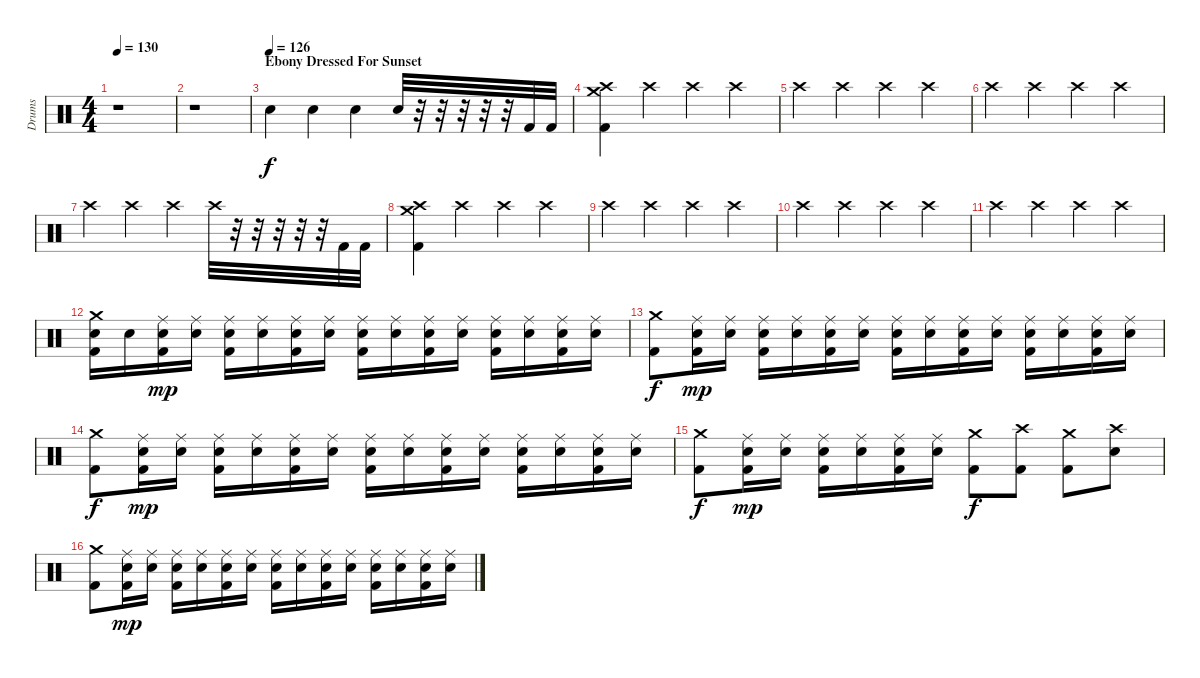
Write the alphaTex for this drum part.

\track ("Drums" "Drums") {instrument percussion}
\staff {score}
\articulation defaults
\ts (4 4)
\tempo 130
\clef neutral
\ks c
r.1{dy f} |
r.1 |
\section ("" "Ebony Dressed For Sunset")
\tempo (126)
"Electric Snare (hit)".4 "Electric Snare (hit)".4 "Electric Snare (hit)".4 "Electric Snare (hit)".32 r.32 r.32 r.32 r.32 r.32 "Kick (hit) 2".32 "Kick (hit) 2".32 |
("Kick (hit) 2" "Crash high (hit)" "Crash medium (hit)").4 "Crash high (hit)".4 "Crash high (hit)".4 "Crash high (hit)".4 |
"Crash high (hit)".4 "Crash high (hit)".4 "Crash high (hit)".4 "Crash high (hit)".4 |
"Crash high (hit)".4 "Crash high (hit)".4 "Crash high (hit)".4 "Crash high (hit)".4 |
"Crash high (hit)".4 "Crash high (hit)".4 "Crash high (hit)".4 "Crash high (hit)".32 r.32 r.32 r.32 r.32 r.32 "Kick (hit) 2".32 "Kick (hit) 2".32 |
("Kick (hit) 2" "Crash high (hit)" "Crash medium (hit)").4 "Crash high (hit)".4 "Crash high (hit)".4 "Crash high (hit)".4 |
"Crash high (hit)".4 "Crash high (hit)".4 "Crash high (hit)".4 "Crash high (hit)".4 |
"Crash high (hit)".4 "Crash high (hit)".4 "Crash high (hit)".4 "Crash high (hit)".4 |
"Crash high (hit)".4 "Crash high (hit)".4 "Crash high (hit)".4 "Crash high (hit)".4 |
("Kick (hit) 2" "Electric Snare (hit)" "Crash medium (hit)").16 "Electric Snare (hit)".16 ("Kick (hit) 2" "Electric Snare (hit)" "Ride (middle)").16{dy mp} ("Electric Snare (hit)" "Ride (middle)").16 ("Kick (hit) 2" "Electric Snare (hit)" "Ride (middle)").16 ("Electric Snare (hit)" "Ride (middle)").16 ("Kick (hit) 2" "Electric Snare (hit)" "Ride (middle)").16 ("Electric Snare (hit)" "Ride (middle)").16 ("Kick (hit) 2" "Electric Snare (hit)" "Ride (middle)").16 ("Electric Snare (hit)" "Ride (middle)").16 ("Kick (hit) 2" "Electric Snare (hit)" "Ride (middle)").16 ("Electric Snare (hit)" "Ride (middle)").16 ("Kick (hit) 2" "Electric Snare (hit)" "Ride (middle)").16 ("Electric Snare (hit)" "Ride (middle)").16 ("Kick (hit) 2" "Electric Snare (hit)" "Ride (middle)").16 ("Electric Snare (hit)" "Ride (middle)").16 |
("Kick (hit) 2" "Crash medium (hit)").8{dy f} ("Kick (hit) 2" "Electric Snare (hit)" "Ride (middle)").16{dy mp} ("Electric Snare (hit)" "Ride (middle)").16 ("Kick (hit) 2" "Electric Snare (hit)" "Ride (middle)").16 ("Electric Snare (hit)" "Ride (middle)").16 ("Kick (hit) 2" "Electric Snare (hit)" "Ride (middle)").16 ("Electric Snare (hit)" "Ride (middle)").16 ("Kick (hit) 2" "Electric Snare (hit)" "Ride (middle)").16 ("Electric Snare (hit)" "Ride (middle)").16 ("Kick (hit) 2" "Electric Snare (hit)" "Ride (middle)").16 ("Electric Snare (hit)" "Ride (middle)").16 ("Kick (hit) 2" "Electric Snare (hit)" "Ride (middle)").16 ("Electric Snare (hit)" "Ride (middle)").16 ("Kick (hit) 2" "Electric Snare (hit)" "Ride (middle)").16 ("Electric Snare (hit)" "Ride (middle)").16 |
("Kick (hit) 2" "Crash medium (hit)").8{dy f} ("Kick (hit) 2" "Electric Snare (hit)" "Ride (middle)").16{dy mp} ("Electric Snare (hit)" "Ride (middle)").16 ("Kick (hit) 2" "Electric Snare (hit)" "Ride (middle)").16 ("Electric Snare (hit)" "Ride (middle)").16 ("Kick (hit) 2" "Electric Snare (hit)" "Ride (middle)").16 ("Electric Snare (hit)" "Ride (middle)").16 ("Kick (hit) 2" "Electric Snare (hit)" "Ride (middle)").16 ("Electric Snare (hit)" "Ride (middle)").16 ("Kick (hit) 2" "Electric Snare (hit)" "Ride (middle)").16 ("Electric Snare (hit)" "Ride (middle)").16 ("Kick (hit) 2" "Electric Snare (hit)" "Ride (middle)").16 ("Electric Snare (hit)" "Ride (middle)").16 ("Kick (hit) 2" "Electric Snare (hit)" "Ride (middle)").16 ("Electric Snare (hit)" "Ride (middle)").16 |
("Kick (hit) 2" "Crash medium (hit)").8{dy f} ("Kick (hit) 2" "Electric Snare (hit)" "Ride (middle)").16{dy mp} ("Electric Snare (hit)" "Ride (middle)").16 ("Kick (hit) 2" "Electric Snare (hit)" "Ride (middle)").16 ("Electric Snare (hit)" "Ride (middle)").16 ("Kick (hit) 2" "Electric Snare (hit)" "Ride (middle)").16 ("Electric Snare (hit)" "Ride (middle)").16 ("Kick (hit) 2" "Crash medium (hit)").8{dy f} ("Kick (hit) 2" "Crash high (hit)").8 ("Kick (hit) 2" "Crash medium (hit)").8 ("Electric Snare (hit)" "Crash high (hit)").8 |
("Kick (hit) 2" "Crash medium (hit)").8 ("Kick (hit) 2" "Electric Snare (hit)" "Ride (middle)").16{dy mp} ("Electric Snare (hit)" "Ride (middle)").16 ("Kick (hit) 2" "Electric Snare (hit)" "Ride (middle)").16 ("Electric Snare (hit)" "Ride (middle)").16 ("Kick (hit) 2" "Electric Snare (hit)" "Ride (middle)").16 ("Electric Snare (hit)" "Ride (middle)").16 ("Kick (hit) 2" "Electric Snare (hit)" "Ride (middle)").16 ("Electric Snare (hit)" "Ride (middle)").16 ("Kick (hit) 2" "Electric Snare (hit)" "Ride (middle)").16 ("Electric Snare (hit)" "Ride (middle)").16 ("Kick (hit) 2" "Electric Snare (hit)" "Ride (middle)").16 ("Electric Snare (hit)" "Ride (middle)").16 ("Kick (hit) 2" "Electric Snare (hit)" "Ride (middle)").16 ("Electric Snare (hit)" "Ride (middle)").16
